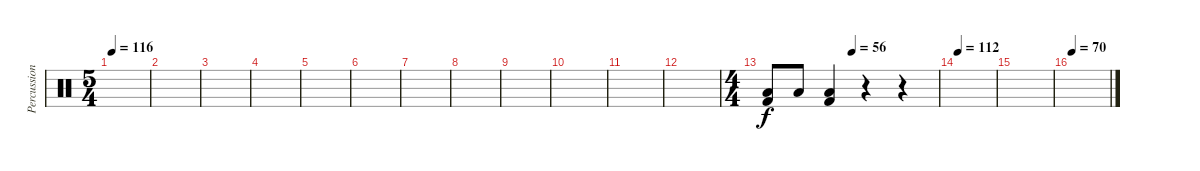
\track ("Percussion" "Percussion") {instrument percussion}
\staff {score}
\articulation defaults
\ts (5 4)
\tempo 116
\clef neutral
\ks c
|
|
|
|
|
|
|
|
|
|
|
|
\ts (4 4)
\tempo (56 0.5)
("Low Floor Tom (hit)" "Kick (hit) 2").8 "Low Tom (hit)".8 ("Low Floor Tom (hit)" "Kick (hit) 2").4 r.4 r.4 |
\tempo 112
|
|
\tempo 70
